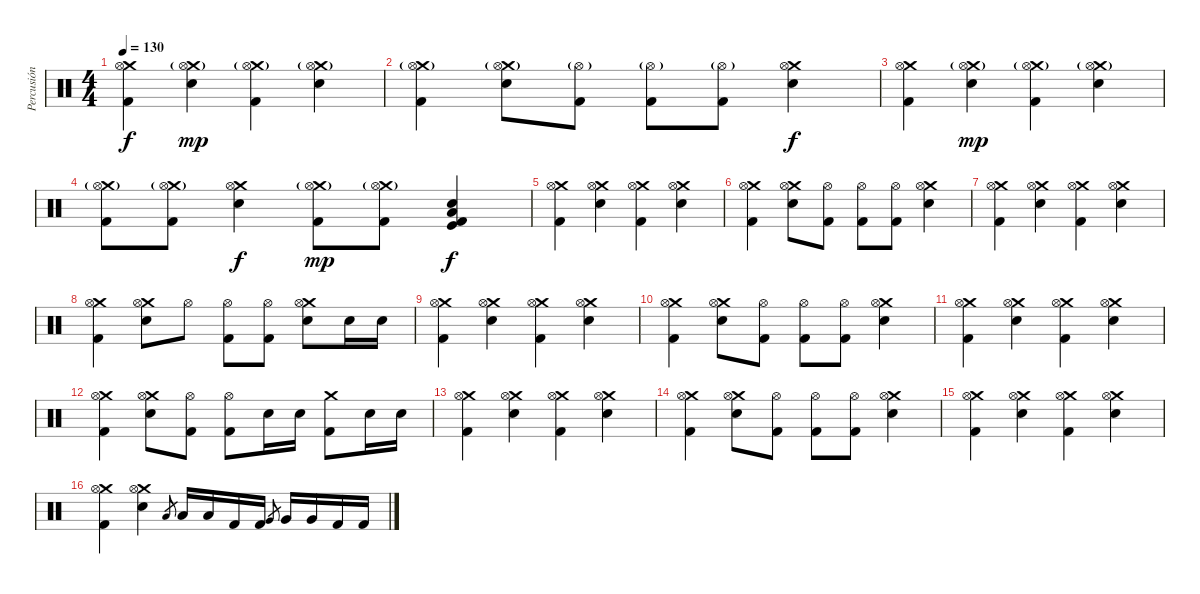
\track ("Percusión" "Percusión") {instrument percussion}
\staff {score}
\articulation defaults
\ts (4 4)
\tempo 130
\clef neutral
\ks c
("Crash medium (hit)" "Kick (hit) 2" "Hi-Hat (open)").4{dy f} ("Snare (hit) 2" "Crash medium (hit)"{g} "Hi-Hat (open)").4{dy mp} ("Kick (hit) 2" "Crash medium (hit)"{g} "Hi-Hat (open)").4 ("Snare (hit) 2" "Crash medium (hit)"{g} "Hi-Hat (open)").4 |
("Kick (hit) 2" "Crash medium (hit)"{g} "Hi-Hat (open)").4 ("Snare (hit) 2" "Crash medium (hit)"{g} "Hi-Hat (open)").8 ("Kick (hit) 2" "Hi-Hat (open)"{g}).8 ("Kick (hit) 2" "Hi-Hat (open)"{g}).8 ("Kick (hit) 2" "Hi-Hat (open)"{g}).8 ("Snare (hit) 2" "Crash medium (hit)" "Hi-Hat (open)").4{dy f} |
("Crash medium (hit)" "Kick (hit) 2" "Hi-Hat (open)").4 ("Snare (hit) 2" "Crash medium (hit)"{g} "Hi-Hat (open)").4{dy mp} ("Kick (hit) 2" "Crash medium (hit)"{g} "Hi-Hat (open)").4 ("Snare (hit) 2" "Crash medium (hit)"{g} "Hi-Hat (open)").4 |
("Kick (hit) 2" "Crash medium (hit)"{g} "Hi-Hat (open)"{g}).8 ("Kick (hit) 2" "Crash medium (hit)"{g} "Hi-Hat (open)"{g}).8 ("Snare (hit) 2" "Crash medium (hit)" "Hi-Hat (open)").4{dy f} ("Kick (hit) 2" "Crash medium (hit)"{g} "Hi-Hat (open)"{g}).8{dy mp} ("Kick (hit) 2" "Crash medium (hit)"{g} "Hi-Hat (open)"{g}).8 ("Kick (hit) 2" "Snare (hit) 2" "Kick (hit)" "Low Floor Tom (hit)").4{dy f} |
("Crash medium (hit)" "Kick (hit) 2" "Hi-Hat (open)").4 ("Snare (hit) 2" "Crash medium (hit)" "Hi-Hat (open)").4 ("Kick (hit) 2" "Crash medium (hit)" "Hi-Hat (open)").4 ("Snare (hit) 2" "Crash medium (hit)" "Hi-Hat (open)").4 |
("Kick (hit) 2" "Crash medium (hit)" "Hi-Hat (open)").4 ("Snare (hit) 2" "Crash medium (hit)" "Hi-Hat (open)").8 ("Kick (hit) 2" "Hi-Hat (open)").8 ("Kick (hit) 2" "Hi-Hat (open)").8 ("Kick (hit) 2" "Hi-Hat (open)").8 ("Snare (hit) 2" "Crash medium (hit)" "Hi-Hat (open)").4 |
("Crash medium (hit)" "Kick (hit) 2" "Hi-Hat (open)").4 ("Snare (hit) 2" "Crash medium (hit)" "Hi-Hat (open)").4 ("Kick (hit) 2" "Crash medium (hit)" "Hi-Hat (open)").4 ("Snare (hit) 2" "Crash medium (hit)" "Hi-Hat (open)").4 |
("Kick (hit) 2" "Crash medium (hit)" "Hi-Hat (open)").4 ("Snare (hit) 2" "Crash medium (hit)" "Hi-Hat (open)").8 "Hi-Hat (open)".8 ("Kick (hit) 2" "Hi-Hat (open)").8 ("Kick (hit) 2" "Hi-Hat (open)").8 ("Snare (hit) 2" "Crash medium (hit)" "Hi-Hat (open)").8 "Snare (hit) 2".16 "Snare (hit) 2".16 |
("Crash medium (hit)" "Kick (hit) 2" "Hi-Hat (open)").4 ("Snare (hit) 2" "Crash medium (hit)" "Hi-Hat (open)").4 ("Kick (hit) 2" "Crash medium (hit)" "Hi-Hat (open)").4 ("Snare (hit) 2" "Crash medium (hit)" "Hi-Hat (open)").4 |
("Kick (hit) 2" "Crash medium (hit)" "Hi-Hat (open)").4 ("Snare (hit) 2" "Crash medium (hit)" "Hi-Hat (open)").8 ("Kick (hit) 2" "Hi-Hat (open)").8 ("Kick (hit) 2" "Hi-Hat (open)").8 ("Kick (hit) 2" "Hi-Hat (open)").8 ("Snare (hit) 2" "Crash medium (hit)" "Hi-Hat (open)").4 |
("Crash medium (hit)" "Kick (hit) 2" "Hi-Hat (open)").4 ("Snare (hit) 2" "Crash medium (hit)" "Hi-Hat (open)").4 ("Kick (hit) 2" "Crash medium (hit)" "Hi-Hat (open)").4 ("Snare (hit) 2" "Crash medium (hit)" "Hi-Hat (open)").4 |
("Kick (hit) 2" "Crash medium (hit)" "Hi-Hat (open)").4 ("Snare (hit) 2" "Crash medium (hit)" "Hi-Hat (open)").8 ("Kick (hit) 2" "Hi-Hat (open)").8 ("Kick (hit) 2" "Hi-Hat (open)").8 "Snare (hit) 2".16 "Snare (hit) 2".16 ("Kick (hit) 2" "Crash medium (hit)").8 "Snare (hit) 2".16 "Snare (hit) 2".16 |
("Crash medium (hit)" "Kick (hit) 2" "Hi-Hat (open)").4 ("Snare (hit) 2" "Crash medium (hit)" "Hi-Hat (open)").4 ("Kick (hit) 2" "Crash medium (hit)" "Hi-Hat (open)").4 ("Snare (hit) 2" "Crash medium (hit)" "Hi-Hat (open)").4 |
("Kick (hit) 2" "Crash medium (hit)" "Hi-Hat (open)").4 ("Snare (hit) 2" "Crash medium (hit)" "Hi-Hat (open)").8 ("Kick (hit) 2" "Hi-Hat (open)").8 ("Kick (hit) 2" "Hi-Hat (open)").8 ("Kick (hit) 2" "Hi-Hat (open)").8 ("Snare (hit) 2" "Crash medium (hit)" "Hi-Hat (open)").4 |
("Crash medium (hit)" "Kick (hit) 2" "Hi-Hat (open)").4 ("Snare (hit) 2" "Crash medium (hit)" "Hi-Hat (open)").4 ("Kick (hit) 2" "Crash medium (hit)" "Hi-Hat (open)").4 ("Snare (hit) 2" "Crash medium (hit)" "Hi-Hat (open)").4 |
("Kick (hit) 2" "Crash medium (hit)" "Hi-Hat (open)").4 ("Snare (hit) 2" "Crash medium (hit)" "Hi-Hat (open)").4 "Low Tom (hit)".8{gr} "Low Tom (hit)".16 "Low Tom (hit)".16 "Kick (hit) 2".16 "Kick (hit) 2".16 "Very Low Tom (hit)".8{gr} "Very Low Tom (hit)".16 "Very Low Tom (hit)".16 "Kick (hit) 2".16 "Kick (hit) 2".16
